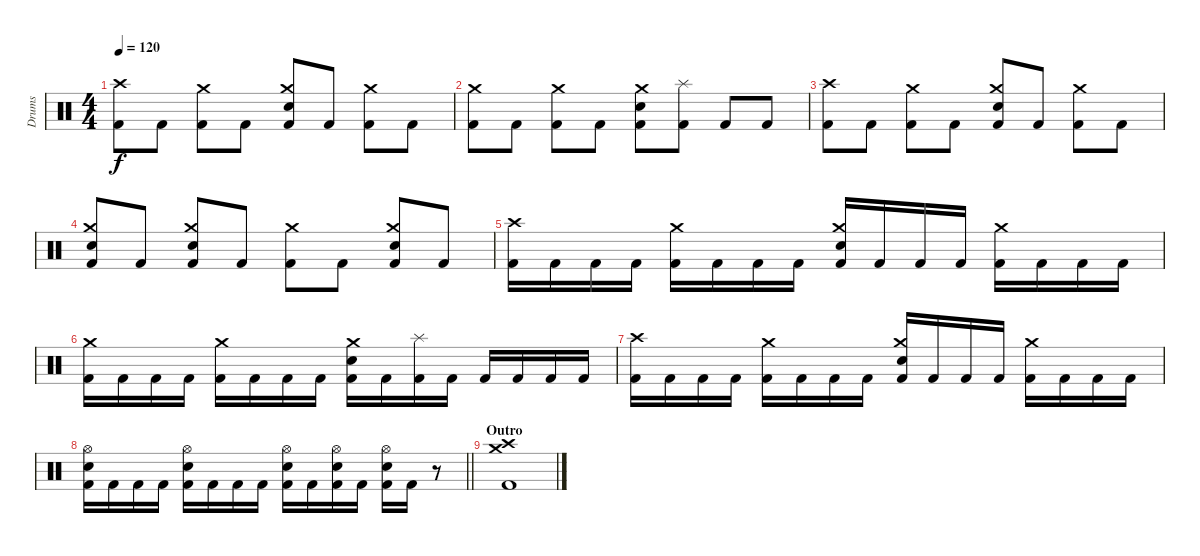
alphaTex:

\track ("Drums" "Drums") {instrument percussion}
\staff {score}
\articulation defaults
\ts (4 4)
\tempo 120
\clef neutral
\ks c
("Crash high (hit)" "Kick (hit) 2").8{dy f} "Kick (hit) 2".8 ("Crash medium (hit)" "Kick (hit) 2").8 "Kick (hit) 2".8 ("Crash medium (hit)" "Electric Snare (hit)" "Kick (hit) 2").8 "Kick (hit) 2".8 ("Crash medium (hit)" "Kick (hit) 2").8 "Kick (hit) 2".8 |
("Crash medium (hit)" "Kick (hit) 2").8 "Kick (hit) 2".8 ("Crash medium (hit)" "Kick (hit) 2").8 "Kick (hit) 2".8 ("Crash medium (hit)" "Electric Snare (hit)" "Kick (hit) 2").8 ("Splash (hit)" "Kick (hit) 2").8 "Kick (hit) 2".8 "Kick (hit) 2".8 |
("Crash high (hit)" "Kick (hit) 2").8 "Kick (hit) 2".8 ("Crash medium (hit)" "Kick (hit) 2").8 "Kick (hit) 2".8 ("Crash medium (hit)" "Electric Snare (hit)" "Kick (hit) 2").8 "Kick (hit) 2".8 ("Crash medium (hit)" "Kick (hit) 2").8 "Kick (hit) 2".8 |
("Crash medium (hit)" "Electric Snare (hit)" "Kick (hit) 2").8 "Kick (hit) 2".8 ("Crash medium (hit)" "Electric Snare (hit)" "Kick (hit) 2").8 "Kick (hit) 2".8 ("Crash medium (hit)" "Kick (hit) 2").8 "Kick (hit) 2".8 ("Crash medium (hit)" "Electric Snare (hit)" "Kick (hit) 2").8 "Kick (hit) 2".8 |
("Crash high (hit)" "Kick (hit) 2").16 "Kick (hit) 2".16 "Kick (hit) 2".16 "Kick (hit) 2".16 ("Crash medium (hit)" "Kick (hit) 2").16 "Kick (hit) 2".16 "Kick (hit) 2".16 "Kick (hit) 2".16 ("Crash medium (hit)" "Electric Snare (hit)" "Kick (hit) 2").16 "Kick (hit) 2".16 "Kick (hit) 2".16 "Kick (hit) 2".16 ("Crash medium (hit)" "Kick (hit) 2").16 "Kick (hit) 2".16 "Kick (hit) 2".16 "Kick (hit) 2".16 |
("Crash medium (hit)" "Kick (hit) 2").16 "Kick (hit) 2".16 "Kick (hit) 2".16 "Kick (hit) 2".16 ("Crash medium (hit)" "Kick (hit) 2").16 "Kick (hit) 2".16 "Kick (hit) 2".16 "Kick (hit) 2".16 ("Crash medium (hit)" "Electric Snare (hit)" "Kick (hit) 2").16 "Kick (hit) 2".16 ("Splash (hit)" "Kick (hit) 2").16 "Kick (hit) 2".16 "Kick (hit) 2".16 "Kick (hit) 2".16 "Kick (hit) 2".16 "Kick (hit) 2".16 |
("Crash high (hit)" "Kick (hit) 2").16 "Kick (hit) 2".16 "Kick (hit) 2".16 "Kick (hit) 2".16 ("Crash medium (hit)" "Kick (hit) 2").16 "Kick (hit) 2".16 "Kick (hit) 2".16 "Kick (hit) 2".16 ("Crash medium (hit)" "Electric Snare (hit)" "Kick (hit) 2").16 "Kick (hit) 2".16 "Kick (hit) 2".16 "Kick (hit) 2".16 ("Crash medium (hit)" "Kick (hit) 2").16 "Kick (hit) 2".16 "Kick (hit) 2".16 "Kick (hit) 2".16 |
\barLineRight lightlight
("Hi-Hat (open)" "Electric Snare (hit)" "Kick (hit) 2").16 "Kick (hit) 2".16 "Kick (hit) 2".16 "Kick (hit) 2".16 ("Hi-Hat (open)" "Electric Snare (hit)" "Kick (hit) 2").16 "Kick (hit) 2".16 "Kick (hit) 2".16 "Kick (hit) 2".16 ("Hi-Hat (open)" "Electric Snare (hit)" "Kick (hit) 2").16 "Kick (hit) 2".16 ("Hi-Hat (open)" "Electric Snare (hit)" "Kick (hit) 2").16 "Kick (hit) 2".16 ("Hi-Hat (open)" "Electric Snare (hit)" "Kick (hit) 2").16 "Kick (hit) 2".16 r.8 |
\section ("" "Outro")
("Crash high (hit)" "Crash medium (hit)" "Kick (hit) 2").1
